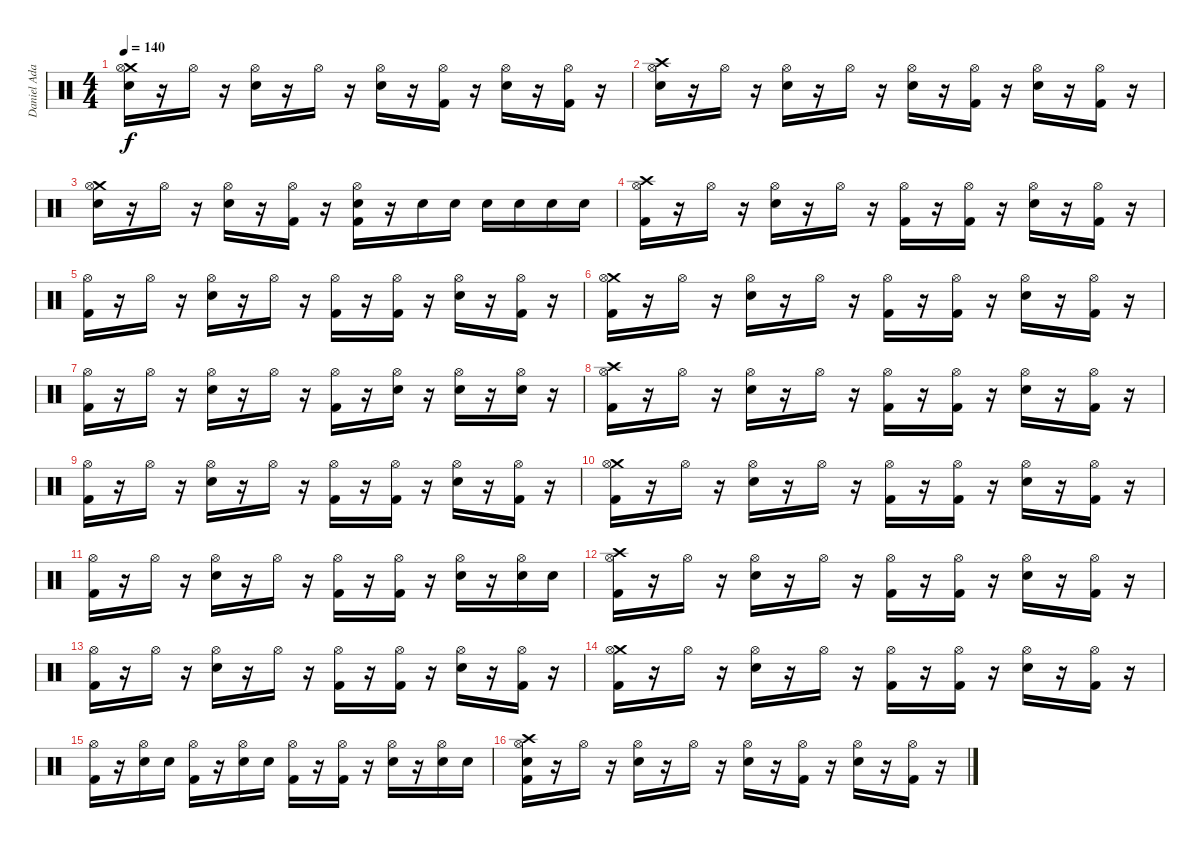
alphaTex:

\track ("Daniel Adair" "Daniel Ada") {instrument percussion}
\staff {score}
\articulation defaults
\ts (4 4)
\tempo 140
\clef neutral
\ks c
("Crash medium (hit)" "Hi-Hat (open)" "Snare (hit) 2").16{dy f} r.16 "Hi-Hat (open)".16 r.16 ("Hi-Hat (open)" "Snare (hit) 2").16 r.16 "Hi-Hat (open)".16 r.16 ("Hi-Hat (open)" "Snare (hit) 2").16 r.16 ("Hi-Hat (open)" "Kick (hit) 2").16 r.16 ("Hi-Hat (open)" "Snare (hit) 2").16 r.16 ("Hi-Hat (open)" "Kick (hit) 2").16 r.16 |
("Crash high (hit)" "Hi-Hat (open)" "Snare (hit) 2").16 r.16 "Hi-Hat (open)".16 r.16 ("Hi-Hat (open)" "Snare (hit) 2").16 r.16 "Hi-Hat (open)".16 r.16 ("Hi-Hat (open)" "Snare (hit) 2").16 r.16 ("Hi-Hat (open)" "Kick (hit) 2").16 r.16 ("Hi-Hat (open)" "Snare (hit) 2").16 r.16 ("Hi-Hat (open)" "Kick (hit) 2").16 r.16 |
("Crash medium (hit)" "Hi-Hat (open)" "Snare (hit) 2").16 r.16 "Hi-Hat (open)".16 r.16 ("Hi-Hat (open)" "Snare (hit) 2").16 r.16 ("Hi-Hat (open)" "Kick (hit) 2").16 r.16 ("Hi-Hat (open)" "Snare (hit) 2" "Kick (hit) 2").16 r.16 "Snare (hit) 2".16{volume 8} "Snare (hit) 2".16{volume 16} "Snare (hit) 2".16 "Snare (hit) 2".16 "Snare (hit) 2".16 "Snare (hit) 2".16 |
("Crash high (hit)" "Hi-Hat (open)" "Kick (hit) 2").16 r.16 "Hi-Hat (open)".16 r.16 ("Hi-Hat (open)" "Snare (hit) 2").16 r.16 "Hi-Hat (open)".16 r.16 ("Hi-Hat (open)" "Kick (hit) 2").16 r.16 ("Hi-Hat (open)" "Kick (hit) 2").16 r.16 ("Hi-Hat (open)" "Snare (hit) 2").16 r.16 ("Hi-Hat (open)" "Kick (hit) 2").16 r.16 |
("Hi-Hat (open)" "Kick (hit) 2").16 r.16 "Hi-Hat (open)".16 r.16 ("Hi-Hat (open)" "Snare (hit) 2").16 r.16 "Hi-Hat (open)".16 r.16 ("Hi-Hat (open)" "Kick (hit) 2").16 r.16 ("Hi-Hat (open)" "Kick (hit) 2").16 r.16 ("Hi-Hat (open)" "Snare (hit) 2").16 r.16 ("Hi-Hat (open)" "Kick (hit) 2").16 r.16 |
("Crash medium (hit)" "Hi-Hat (open)" "Kick (hit) 2").16 r.16 "Hi-Hat (open)".16 r.16 ("Hi-Hat (open)" "Snare (hit) 2").16 r.16 "Hi-Hat (open)".16 r.16 ("Hi-Hat (open)" "Kick (hit) 2").16 r.16 ("Hi-Hat (open)" "Kick (hit) 2").16 r.16 ("Hi-Hat (open)" "Snare (hit) 2").16 r.16 ("Hi-Hat (open)" "Kick (hit) 2").16 r.16 |
("Hi-Hat (open)" "Kick (hit) 2").16 r.16 "Hi-Hat (open)".16 r.16 ("Hi-Hat (open)" "Snare (hit) 2").16 r.16 "Hi-Hat (open)".16 r.16 ("Hi-Hat (open)" "Kick (hit) 2").16 r.16 ("Hi-Hat (open)" "Snare (hit) 2").16 r.16 ("Hi-Hat (open)" "Snare (hit) 2").16 r.16 ("Hi-Hat (open)" "Snare (hit) 2").16 r.16 |
("Crash high (hit)" "Hi-Hat (open)" "Kick (hit) 2").16 r.16 "Hi-Hat (open)".16 r.16 ("Hi-Hat (open)" "Snare (hit) 2").16 r.16 "Hi-Hat (open)".16 r.16 ("Hi-Hat (open)" "Kick (hit) 2").16 r.16 ("Hi-Hat (open)" "Kick (hit) 2").16 r.16 ("Hi-Hat (open)" "Snare (hit) 2").16 r.16 ("Hi-Hat (open)" "Kick (hit) 2").16 r.16 |
("Hi-Hat (open)" "Kick (hit) 2").16 r.16 "Hi-Hat (open)".16 r.16 ("Hi-Hat (open)" "Snare (hit) 2").16 r.16 "Hi-Hat (open)".16 r.16 ("Hi-Hat (open)" "Kick (hit) 2").16 r.16 ("Hi-Hat (open)" "Kick (hit) 2").16 r.16 ("Hi-Hat (open)" "Snare (hit) 2").16 r.16 ("Hi-Hat (open)" "Kick (hit) 2").16 r.16 |
("Crash medium (hit)" "Hi-Hat (open)" "Kick (hit) 2").16 r.16 "Hi-Hat (open)".16 r.16 ("Hi-Hat (open)" "Snare (hit) 2").16 r.16 "Hi-Hat (open)".16 r.16 ("Hi-Hat (open)" "Kick (hit) 2").16 r.16 ("Hi-Hat (open)" "Kick (hit) 2").16 r.16 ("Hi-Hat (open)" "Snare (hit) 2").16 r.16 ("Hi-Hat (open)" "Kick (hit) 2").16 r.16 |
("Hi-Hat (open)" "Kick (hit) 2").16 r.16 "Hi-Hat (open)".16 r.16 ("Hi-Hat (open)" "Snare (hit) 2").16 r.16 "Hi-Hat (open)".16 r.16 ("Hi-Hat (open)" "Kick (hit) 2").16 r.16 ("Hi-Hat (open)" "Kick (hit) 2").16 r.16 ("Hi-Hat (open)" "Snare (hit) 2").16 r.16 ("Hi-Hat (open)" "Snare (hit) 2").16 "Snare (hit) 2".16 |
("Crash high (hit)" "Hi-Hat (open)" "Kick (hit) 2").16 r.16 "Hi-Hat (open)".16 r.16 ("Hi-Hat (open)" "Snare (hit) 2").16 r.16 "Hi-Hat (open)".16 r.16 ("Hi-Hat (open)" "Kick (hit) 2").16 r.16 ("Hi-Hat (open)" "Kick (hit) 2").16 r.16 ("Hi-Hat (open)" "Snare (hit) 2").16 r.16 ("Hi-Hat (open)" "Kick (hit) 2").16 r.16 |
("Hi-Hat (open)" "Kick (hit) 2").16 r.16 "Hi-Hat (open)".16 r.16 ("Hi-Hat (open)" "Snare (hit) 2").16 r.16 "Hi-Hat (open)".16 r.16 ("Hi-Hat (open)" "Kick (hit) 2").16 r.16 ("Hi-Hat (open)" "Kick (hit) 2").16 r.16 ("Hi-Hat (open)" "Snare (hit) 2").16 r.16 ("Hi-Hat (open)" "Kick (hit) 2").16 r.16 |
("Crash medium (hit)" "Hi-Hat (open)" "Kick (hit) 2").16 r.16 "Hi-Hat (open)".16 r.16 ("Hi-Hat (open)" "Snare (hit) 2").16 r.16 "Hi-Hat (open)".16 r.16 ("Hi-Hat (open)" "Kick (hit) 2").16 r.16 ("Hi-Hat (open)" "Kick (hit) 2").16 r.16 ("Hi-Hat (open)" "Snare (hit) 2").16 r.16 ("Hi-Hat (open)" "Kick (hit) 2").16 r.16 |
("Hi-Hat (open)" "Kick (hit) 2").16 r.16 ("Hi-Hat (open)" "Snare (hit) 2").16 "Snare (hit) 2".16 ("Hi-Hat (open)" "Kick (hit) 2").16 r.16 ("Hi-Hat (open)" "Snare (hit) 2").16 "Snare (hit) 2".16 ("Hi-Hat (open)" "Kick (hit) 2").16 r.16 ("Hi-Hat (open)" "Kick (hit) 2").16 r.16 ("Hi-Hat (open)" "Snare (hit) 2").16 r.16 ("Hi-Hat (open)" "Snare (hit) 2").16 "Snare (hit) 2".16 |
("Crash high (hit)" "Hi-Hat (open)" "Snare (hit) 2" "Kick (hit) 2").16 r.16 "Hi-Hat (open)".16 r.16 ("Hi-Hat (open)" "Snare (hit) 2").16 r.16 "Hi-Hat (open)".16 r.16 ("Hi-Hat (open)" "Snare (hit) 2").16 r.16 ("Hi-Hat (open)" "Kick (hit) 2").16 r.16 ("Hi-Hat (open)" "Snare (hit) 2").16 r.16 ("Hi-Hat (open)" "Kick (hit) 2").16 r.16
